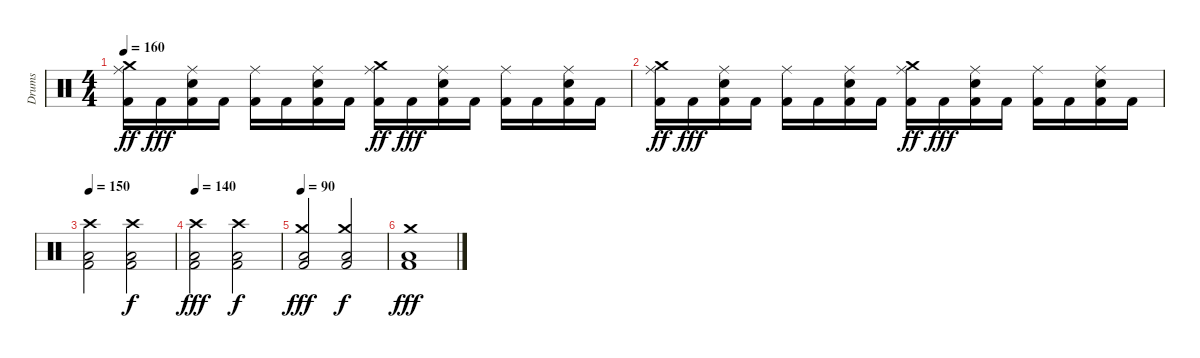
\track ("Drums" "Drums") {instrument percussion}
\staff {score}
\articulation defaults
\ts (4 4)
\tempo 160
\clef neutral
\ks c
("Kick (hit) 2" "Ride (middle)" "Crash medium (hit)").16{dy ff} "Kick (hit) 2".16{dy fff} ("Kick (hit) 2" "Ride (middle)" "Snare (hit) 2").16 "Kick (hit) 2".16 ("Kick (hit) 2" "Ride (middle)").16 "Kick (hit) 2".16 ("Kick (hit) 2" "Ride (middle)" "Snare (hit) 2").16 "Kick (hit) 2".16 ("Kick (hit) 2" "Ride (middle)" "Crash medium (hit)").16{dy ff} "Kick (hit) 2".16{dy fff} ("Kick (hit) 2" "Ride (middle)" "Snare (hit) 2").16 "Kick (hit) 2".16 ("Kick (hit) 2" "Ride (middle)").16 "Kick (hit) 2".16 ("Kick (hit) 2" "Ride (middle)" "Snare (hit) 2").16 "Kick (hit) 2".16 |
("Kick (hit) 2" "Ride (middle)" "Crash medium (hit)").16{dy ff} "Kick (hit) 2".16{dy fff} ("Kick (hit) 2" "Ride (middle)" "Snare (hit) 2").16 "Kick (hit) 2".16 ("Kick (hit) 2" "Ride (middle)").16 "Kick (hit) 2".16 ("Kick (hit) 2" "Ride (middle)" "Snare (hit) 2").16 "Kick (hit) 2".16 ("Kick (hit) 2" "Ride (middle)" "Crash medium (hit)").16{dy ff} "Kick (hit) 2".16{dy fff} ("Kick (hit) 2" "Ride (middle)" "Snare (hit) 2").16 "Kick (hit) 2".16 ("Kick (hit) 2" "Ride (middle)").16 "Kick (hit) 2".16 ("Kick (hit) 2" "Ride (middle)" "Snare (hit) 2").16 "Kick (hit) 2".16 |
\tempo 150
("Kick (hit) 2" "Low Floor Tom (hit)" "Crash high (hit)").2 ("Kick (hit) 2" "Low Floor Tom (hit)" "Crash high (hit)").2{dy f} |
\tempo 140
("Kick (hit) 2" "Low Floor Tom (hit)" "Crash high (hit)").2{dy fff} ("Kick (hit) 2" "Low Floor Tom (hit)" "Crash high (hit)").2{dy f} |
\tempo 90
("Kick (hit) 2" "Low Floor Tom (hit)" "Crash medium (hit)").2{dy fff} ("Kick (hit) 2" "Low Floor Tom (hit)" "Crash medium (hit)").2{dy f} |
("Kick (hit) 2" "Low Floor Tom (hit)" "Crash medium (hit)").1{dy fff}
